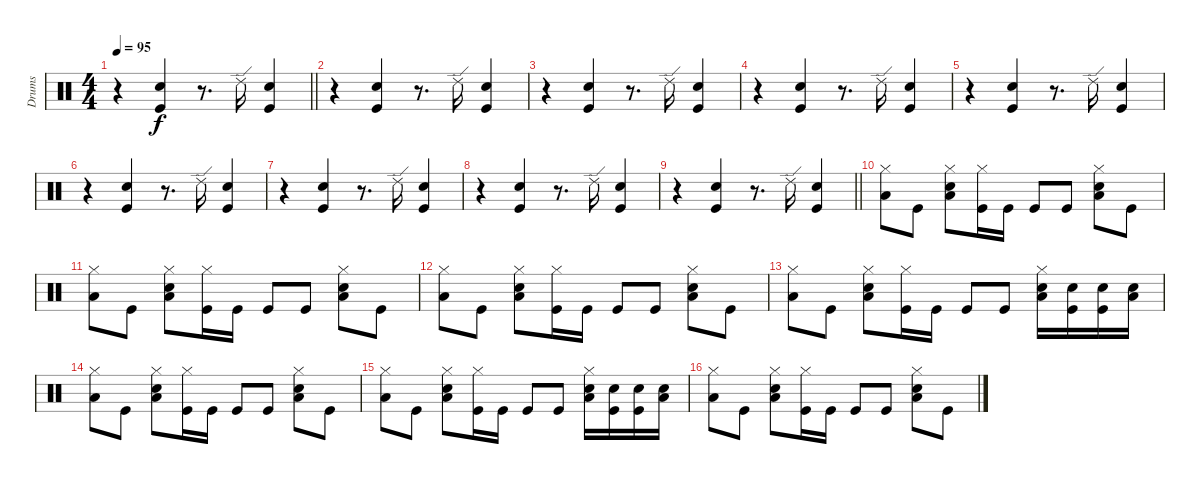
\track ("Drums" "Drums") {instrument percussion}
\staff {score}
\articulation defaults
\ts (4 4)
\tempo 95
\clef neutral
\barLineRight lightlight
\ks c
r.4{dy f} ("Kick (hit)" "Snare (hit) 2").4 r.8{d} "Ride (edge) 2".16 ("Kick (hit)" "Snare (hit) 2").4 |
r.4 ("Kick (hit)" "Snare (hit) 2").4 r.8{d} "Ride (edge) 2".16 ("Kick (hit)" "Snare (hit) 2").4 |
r.4 ("Kick (hit)" "Snare (hit) 2").4 r.8{d} "Ride (edge) 2".16 ("Kick (hit)" "Snare (hit) 2").4 |
r.4 ("Kick (hit)" "Snare (hit) 2").4 r.8{d} "Ride (edge) 2".16 ("Kick (hit)" "Snare (hit) 2").4 |
r.4 ("Kick (hit)" "Snare (hit) 2").4 r.8{d} "Ride (edge) 2".16 ("Kick (hit)" "Snare (hit) 2").4 |
r.4 ("Kick (hit)" "Snare (hit) 2").4 r.8{d} "Ride (edge) 2".16 ("Kick (hit)" "Snare (hit) 2").4 |
r.4 ("Kick (hit)" "Snare (hit) 2").4 r.8{d} "Ride (edge) 2".16 ("Kick (hit)" "Snare (hit) 2").4 |
r.4 ("Kick (hit)" "Snare (hit) 2").4 r.8{d} "Ride (edge) 2".16 ("Kick (hit)" "Snare (hit) 2").4 |
\barLineRight lightlight
r.4 ("Kick (hit)" "Snare (hit) 2").4 r.8{d} "Ride (edge) 2".16 ("Kick (hit)" "Snare (hit) 2").4 |
("Low Floor Tom (hit)" "Hi-Hat (closed)").8 "Kick (hit)".8 ("Low Floor Tom (hit)" "Snare (hit) 2" "Hi-Hat (closed)").8 ("Kick (hit)" "Hi-Hat (closed)").16 "Kick (hit)".16 "Kick (hit)".8 "Kick (hit)".8 ("Low Floor Tom (hit)" "Snare (hit) 2" "Hi-Hat (closed)").8 "Kick (hit)".8 |
("Low Floor Tom (hit)" "Hi-Hat (closed)").8 "Kick (hit)".8 ("Low Floor Tom (hit)" "Snare (hit) 2" "Hi-Hat (closed)").8 ("Kick (hit)" "Hi-Hat (closed)").16 "Kick (hit)".16 "Kick (hit)".8 "Kick (hit)".8 ("Low Floor Tom (hit)" "Snare (hit) 2" "Hi-Hat (closed)").8 "Kick (hit)".8 |
("Low Floor Tom (hit)" "Hi-Hat (closed)").8 "Kick (hit)".8 ("Low Floor Tom (hit)" "Snare (hit) 2" "Hi-Hat (closed)").8 ("Kick (hit)" "Hi-Hat (closed)").16 "Kick (hit)".16 "Kick (hit)".8 "Kick (hit)".8 ("Low Floor Tom (hit)" "Snare (hit) 2" "Hi-Hat (closed)").8 "Kick (hit)".8 |
("Low Floor Tom (hit)" "Hi-Hat (closed)").8 "Kick (hit)".8 ("Low Floor Tom (hit)" "Snare (hit) 2" "Hi-Hat (closed)").8 ("Kick (hit)" "Hi-Hat (closed)").16 "Kick (hit)".16 "Kick (hit)".8 "Kick (hit)".8 ("Low Floor Tom (hit)" "Snare (hit) 2" "Hi-Hat (closed)").16 ("Kick (hit)" "Snare (hit) 2").16 ("Kick (hit)" "Snare (hit) 2").16 ("Low Floor Tom (hit)" "Snare (hit) 2").16 |
("Low Floor Tom (hit)" "Hi-Hat (closed)").8 "Kick (hit)".8 ("Low Floor Tom (hit)" "Snare (hit) 2" "Hi-Hat (closed)").8 ("Kick (hit)" "Hi-Hat (closed)").16 "Kick (hit)".16 "Kick (hit)".8 "Kick (hit)".8 ("Low Floor Tom (hit)" "Snare (hit) 2" "Hi-Hat (closed)").8 "Kick (hit)".8 |
("Low Floor Tom (hit)" "Hi-Hat (closed)").8 "Kick (hit)".8 ("Low Floor Tom (hit)" "Snare (hit) 2" "Hi-Hat (closed)").8 ("Kick (hit)" "Hi-Hat (closed)").16 "Kick (hit)".16 "Kick (hit)".8 "Kick (hit)".8 ("Low Floor Tom (hit)" "Snare (hit) 2" "Hi-Hat (closed)").16 ("Kick (hit)" "Snare (hit) 2").16 ("Kick (hit)" "Snare (hit) 2").16 ("Low Floor Tom (hit)" "Snare (hit) 2").16 |
("Low Floor Tom (hit)" "Hi-Hat (closed)").8 "Kick (hit)".8 ("Low Floor Tom (hit)" "Snare (hit) 2" "Hi-Hat (closed)").8 ("Kick (hit)" "Hi-Hat (closed)").16 "Kick (hit)".16 "Kick (hit)".8 "Kick (hit)".8 ("Low Floor Tom (hit)" "Snare (hit) 2" "Hi-Hat (closed)").8 "Kick (hit)".8
